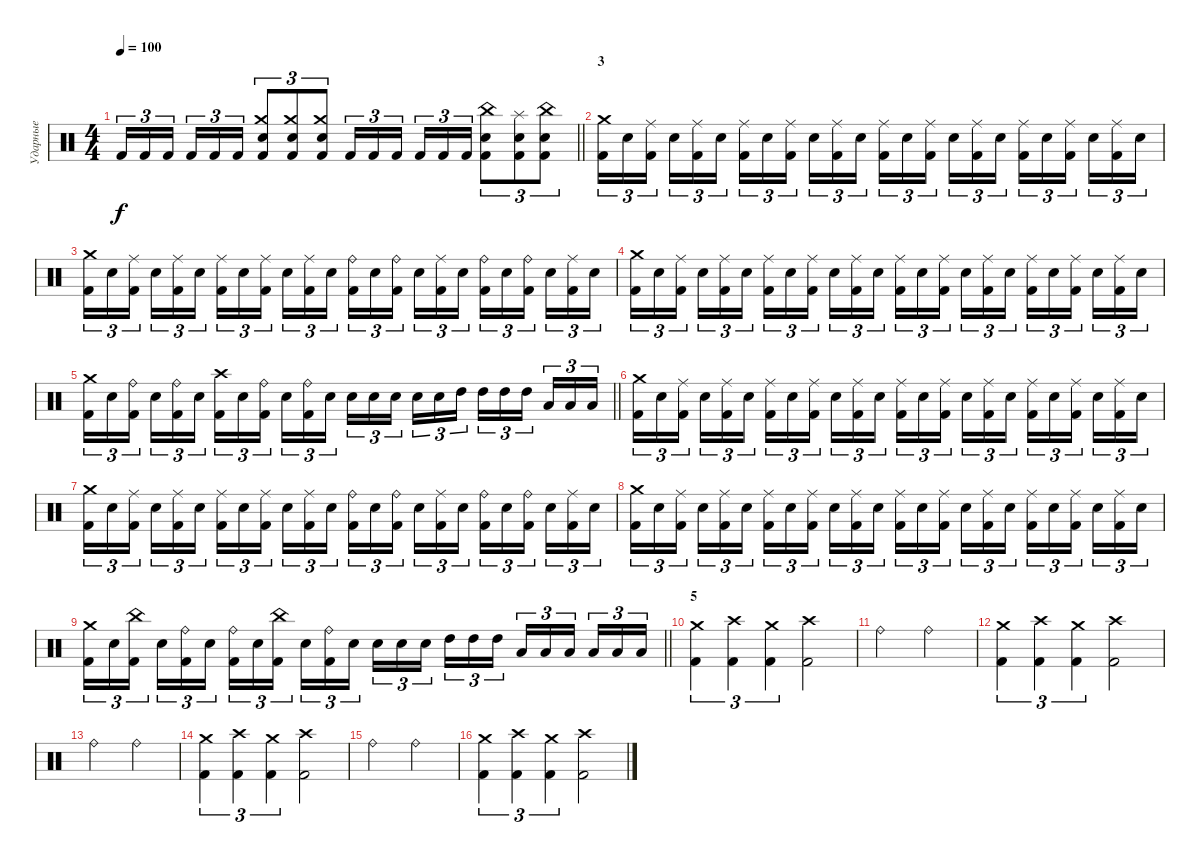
\track ("Ударные" "Ударные") {instrument percussion}
\staff {score}
\articulation defaults
\ts (4 4)
\tempo 100
\clef neutral
\barLineRight lightlight
\ks c "Kick (hit) 2".16{tu (3 2) dy f} "Kick (hit) 2".16{tu (3 2)} "Kick (hit) 2".16{tu (3 2) beam splitsecondary} "Kick (hit) 2".16{tu (3 2)} "Kick (hit) 2".16{tu (3 2)} "Kick (hit) 2".16{tu (3 2)}
("Crash medium (hit)" "Electric Snare (hit)" "Kick (hit) 2").8{tu (3 2)} ("Crash medium (hit)" "Electric Snare (hit)" "Kick (hit) 2").8{tu (3 2)} ("Crash medium (hit)" "Electric Snare (hit)" "Kick (hit) 2").8{tu (3 2)} "Kick (hit) 2".16{tu (3 2)} "Kick (hit) 2".16{tu (3 2)} "Kick (hit) 2".16{tu (3 2) beam splitsecondary} "Kick (hit) 2".16{tu (3 2)} "Kick (hit) 2".16{tu (3 2)} "Kick (hit) 2".16{tu (3 2)} ("China (hit)" "Electric Snare (hit)" "Kick (hit) 2").8{tu (3 2)} ("Splash (hit)" "Electric Snare (hit)" "Kick (hit) 2").8{tu (3 2)} ("China (hit)" "Electric Snare (hit)" "Kick (hit) 2").8{tu (3 2)} |
\section ("" "3")
("Crash medium (hit)" "Kick (hit) 2").16{tu (3 2)} "Electric Snare (hit)".16{tu (3 2)} ("Ride (middle)" "Kick (hit) 2").16{tu (3 2) beam splitsecondary} "Electric Snare (hit)".16{tu (3 2)} ("Ride (middle)" "Kick (hit) 2").16{tu (3 2)} "Electric Snare (hit)".16{tu (3 2)} ("Ride (middle)" "Kick (hit) 2").16{tu (3 2)} "Electric Snare (hit)".16{tu (3 2)} ("Ride (middle)" "Kick (hit) 2").16{tu (3 2) beam splitsecondary} "Electric Snare (hit)".16{tu (3 2)} ("Ride (middle)" "Kick (hit) 2").16{tu (3 2)} "Electric Snare (hit)".16{tu (3 2)} ("Ride (middle)" "Kick (hit) 2").16{tu (3 2)} "Electric Snare (hit)".16{tu (3 2)} ("Ride (middle)" "Kick (hit) 2").16{tu (3 2) beam splitsecondary} "Electric Snare (hit)".16{tu (3 2)} ("Ride (middle)" "Kick (hit) 2").16{tu (3 2)} "Electric Snare (hit)".16{tu (3 2)} ("Ride (middle)" "Kick (hit) 2").16{tu (3 2)} "Electric Snare (hit)".16{tu (3 2)} ("Ride (middle)" "Kick (hit) 2").16{tu (3 2) beam splitsecondary} "Electric Snare (hit)".16{tu (3 2)} ("Ride (middle)" "Kick (hit) 2").16{tu (3 2)} "Electric Snare (hit)".16{tu (3 2)} |
("Crash medium (hit)" "Kick (hit) 2").16{tu (3 2)} "Electric Snare (hit)".16{tu (3 2)} ("Ride (middle)" "Kick (hit) 2").16{tu (3 2) beam splitsecondary} "Electric Snare (hit)".16{tu (3 2)} ("Ride (middle)" "Kick (hit) 2").16{tu (3 2)} "Electric Snare (hit)".16{tu (3 2)} ("Ride (middle)" "Kick (hit) 2").16{tu (3 2)} "Electric Snare (hit)".16{tu (3 2)} ("Ride (middle)" "Kick (hit) 2").16{tu (3 2) beam splitsecondary} "Electric Snare (hit)".16{tu (3 2)} ("Ride (middle)" "Kick (hit) 2").16{tu (3 2)} "Electric Snare (hit)".16{tu (3 2)} ("Ride (bell)" "Kick (hit) 2").16{tu (3 2)} "Electric Snare (hit)".16{tu (3 2)} ("Ride (bell)" "Kick (hit) 2").16{tu (3 2) beam splitsecondary} "Electric Snare (hit)".16{tu (3 2)} ("Ride (middle)" "Kick (hit) 2").16{tu (3 2)} "Electric Snare (hit)".16{tu (3 2)} ("Ride (bell)" "Kick (hit) 2").16{tu (3 2)} "Electric Snare (hit)".16{tu (3 2)} ("Ride (bell)" "Kick (hit) 2").16{tu (3 2) beam splitsecondary} "Electric Snare (hit)".16{tu (3 2)} ("Ride (middle)" "Kick (hit) 2").16{tu (3 2)} "Electric Snare (hit)".16{tu (3 2)} |
("Crash medium (hit)" "Kick (hit) 2").16{tu (3 2)} "Electric Snare (hit)".16{tu (3 2)} ("Ride (middle)" "Kick (hit) 2").16{tu (3 2) beam splitsecondary} "Electric Snare (hit)".16{tu (3 2)} ("Ride (middle)" "Kick (hit) 2").16{tu (3 2)} "Electric Snare (hit)".16{tu (3 2)} ("Ride (middle)" "Kick (hit) 2").16{tu (3 2)} "Electric Snare (hit)".16{tu (3 2)} ("Ride (middle)" "Kick (hit) 2").16{tu (3 2) beam splitsecondary} "Electric Snare (hit)".16{tu (3 2)} ("Ride (middle)" "Kick (hit) 2").16{tu (3 2)} "Electric Snare (hit)".16{tu (3 2)} ("Ride (middle)" "Kick (hit) 2").16{tu (3 2)} "Electric Snare (hit)".16{tu (3 2)} ("Ride (middle)" "Kick (hit) 2").16{tu (3 2) beam splitsecondary} "Electric Snare (hit)".16{tu (3 2)} ("Ride (middle)" "Kick (hit) 2").16{tu (3 2)} "Electric Snare (hit)".16{tu (3 2)} ("Ride (middle)" "Kick (hit) 2").16{tu (3 2)} "Electric Snare (hit)".16{tu (3 2)} ("Ride (middle)" "Kick (hit) 2").16{tu (3 2) beam splitsecondary} "Electric Snare (hit)".16{tu (3 2)} ("Ride (middle)" "Kick (hit) 2").16{tu (3 2)} "Electric Snare (hit)".16{tu (3 2)} |
\barLineRight lightlight
("Crash medium (hit)" "Kick (hit) 2").16{tu (3 2)} "Electric Snare (hit)".16{tu (3 2)} ("Ride (bell)" "Kick (hit) 2").16{tu (3 2) beam splitsecondary} "Electric Snare (hit)".16{tu (3 2)} ("Ride (bell)" "Kick (hit) 2").16{tu (3 2)} "Electric Snare (hit)".16{tu (3 2)} ("Crash high (hit)" "Kick (hit) 2").16{tu (3 2)} "Electric Snare (hit)".16{tu (3 2)} ("Ride (bell)" "Kick (hit) 2").16{tu (3 2) beam splitsecondary} "Electric Snare (hit)".16{tu (3 2)} ("Ride (bell)" "Kick (hit) 2").16{tu (3 2)} "Electric Snare (hit)".16{tu (3 2)} "Electric Snare (hit)".16{tu (3 2)} "Electric Snare (hit)".16{tu (3 2)} "Electric Snare (hit)".16{tu (3 2) beam splitsecondary} "Electric Snare (hit)".16{tu (3 2)} "Electric Snare (hit)".16{tu (3 2)} "High Tom (hit)".16{tu (3 2)} "High Tom (hit)".16{tu (3 2)} "High Tom (hit)".16{tu (3 2)} "High Tom (hit)".16{tu (3 2) beam splitsecondary} "Low Tom (hit)".16{tu (3 2)} "Low Tom (hit)".16{tu (3 2)} "Low Tom (hit)".16{tu (3 2)} |
("Crash medium (hit)" "Kick (hit) 2").16{tu (3 2)} "Electric Snare (hit)".16{tu (3 2)} ("Ride (middle)" "Kick (hit) 2").16{tu (3 2) beam splitsecondary} "Electric Snare (hit)".16{tu (3 2)} ("Ride (middle)" "Kick (hit) 2").16{tu (3 2)} "Electric Snare (hit)".16{tu (3 2)} ("Ride (middle)" "Kick (hit) 2").16{tu (3 2)} "Electric Snare (hit)".16{tu (3 2)} ("Ride (middle)" "Kick (hit) 2").16{tu (3 2) beam splitsecondary} "Electric Snare (hit)".16{tu (3 2)} ("Ride (middle)" "Kick (hit) 2").16{tu (3 2)} "Electric Snare (hit)".16{tu (3 2)} ("Ride (middle)" "Kick (hit) 2").16{tu (3 2)} "Electric Snare (hit)".16{tu (3 2)} ("Ride (middle)" "Kick (hit) 2").16{tu (3 2) beam splitsecondary} "Electric Snare (hit)".16{tu (3 2)} ("Ride (middle)" "Kick (hit) 2").16{tu (3 2)} "Electric Snare (hit)".16{tu (3 2)} ("Ride (middle)" "Kick (hit) 2").16{tu (3 2)} "Electric Snare (hit)".16{tu (3 2)} ("Ride (middle)" "Kick (hit) 2").16{tu (3 2) beam splitsecondary} "Electric Snare (hit)".16{tu (3 2)} ("Ride (middle)" "Kick (hit) 2").16{tu (3 2)} "Electric Snare (hit)".16{tu (3 2)} |
("Crash medium (hit)" "Kick (hit) 2").16{tu (3 2)} "Electric Snare (hit)".16{tu (3 2)} ("Ride (middle)" "Kick (hit) 2").16{tu (3 2) beam splitsecondary} "Electric Snare (hit)".16{tu (3 2)} ("Ride (middle)" "Kick (hit) 2").16{tu (3 2)} "Electric Snare (hit)".16{tu (3 2)} ("Ride (middle)" "Kick (hit) 2").16{tu (3 2)} "Electric Snare (hit)".16{tu (3 2)} ("Ride (middle)" "Kick (hit) 2").16{tu (3 2) beam splitsecondary} "Electric Snare (hit)".16{tu (3 2)} ("Ride (middle)" "Kick (hit) 2").16{tu (3 2)} "Electric Snare (hit)".16{tu (3 2)} ("Ride (bell)" "Kick (hit) 2").16{tu (3 2)} "Electric Snare (hit)".16{tu (3 2)} ("Ride (bell)" "Kick (hit) 2").16{tu (3 2) beam splitsecondary} "Electric Snare (hit)".16{tu (3 2)} ("Ride (middle)" "Kick (hit) 2").16{tu (3 2)} "Electric Snare (hit)".16{tu (3 2)} ("Ride (bell)" "Kick (hit) 2").16{tu (3 2)} "Electric Snare (hit)".16{tu (3 2)} ("Ride (bell)" "Kick (hit) 2").16{tu (3 2) beam splitsecondary} "Electric Snare (hit)".16{tu (3 2)} ("Ride (middle)" "Kick (hit) 2").16{tu (3 2)} "Electric Snare (hit)".16{tu (3 2)} |
("Crash medium (hit)" "Kick (hit) 2").16{tu (3 2)} "Electric Snare (hit)".16{tu (3 2)} ("Ride (middle)" "Kick (hit) 2").16{tu (3 2) beam splitsecondary} "Electric Snare (hit)".16{tu (3 2)} ("Ride (middle)" "Kick (hit) 2").16{tu (3 2)} "Electric Snare (hit)".16{tu (3 2)} ("Ride (middle)" "Kick (hit) 2").16{tu (3 2)} "Electric Snare (hit)".16{tu (3 2)} ("Ride (middle)" "Kick (hit) 2").16{tu (3 2) beam splitsecondary} "Electric Snare (hit)".16{tu (3 2)} ("Ride (middle)" "Kick (hit) 2").16{tu (3 2)} "Electric Snare (hit)".16{tu (3 2)} ("Ride (middle)" "Kick (hit) 2").16{tu (3 2)} "Electric Snare (hit)".16{tu (3 2)} ("Ride (middle)" "Kick (hit) 2").16{tu (3 2) beam splitsecondary} "Electric Snare (hit)".16{tu (3 2)} ("Ride (middle)" "Kick (hit) 2").16{tu (3 2)} "Electric Snare (hit)".16{tu (3 2)} ("Ride (middle)" "Kick (hit) 2").16{tu (3 2)} "Electric Snare (hit)".16{tu (3 2)} ("Ride (middle)" "Kick (hit) 2").16{tu (3 2) beam splitsecondary} "Electric Snare (hit)".16{tu (3 2)} ("Ride (middle)" "Kick (hit) 2").16{tu (3 2)} "Electric Snare (hit)".16{tu (3 2)} |
\barLineRight lightlight
("Crash medium (hit)" "Kick (hit) 2").16{tu (3 2)} "Electric Snare (hit)".16{tu (3 2)} ("China (hit)" "Kick (hit) 2").16{tu (3 2) beam splitsecondary} "Electric Snare (hit)".16{tu (3 2)} ("Ride (bell)" "Kick (hit) 2").16{tu (3 2)} "Electric Snare (hit)".16{tu (3 2)} ("Ride (bell)" "Kick (hit) 2").16{tu (3 2)} "Electric Snare (hit)".16{tu (3 2)} ("China (hit)" "Kick (hit) 2").16{tu (3 2) beam splitsecondary} "Electric Snare (hit)".16{tu (3 2)} ("Ride (bell)" "Kick (hit) 2").16{tu (3 2)} "Electric Snare (hit)".16{tu (3 2)} "Electric Snare (hit)".16{tu (3 2)} "Electric Snare (hit)".16{tu (3 2)} "Electric Snare (hit)".16{tu (3 2) beam splitsecondary} "High Tom (hit)".16{tu (3 2)} "High Tom (hit)".16{tu (3 2)} "High Tom (hit)".16{tu (3 2)} "Low Tom (hit)".16{tu (3 2)} "Low Tom (hit)".16{tu (3 2)} "Low Tom (hit)".16{tu (3 2) beam splitsecondary} "Low Floor Tom (hit)".16{tu (3 2)} "Low Floor Tom (hit)".16{tu (3 2)} "Low Floor Tom (hit)".16{tu (3 2)} |
\section ("" "5")
("Crash medium (hit)" "Kick (hit) 2").4{tu (3 2)} ("Crash high (hit)" "Kick (hit) 2").4{tu (3 2)} ("Crash medium (hit)" "Kick (hit) 2").4{tu (3 2)} ("Crash high (hit)" "Kick (hit) 2").2 |
"Ride (bell)".2 "Ride (bell)".2 |
("Crash medium (hit)" "Kick (hit) 2").4{tu (3 2)} ("Crash high (hit)" "Kick (hit) 2").4{tu (3 2)} ("Crash medium (hit)" "Kick (hit) 2").4{tu (3 2)} ("Crash high (hit)" "Kick (hit) 2").2 |
"Ride (bell)".2 "Ride (bell)".2 |
("Crash medium (hit)" "Kick (hit) 2").4{tu (3 2)} ("Crash high (hit)" "Kick (hit) 2").4{tu (3 2)} ("Crash medium (hit)" "Kick (hit) 2").4{tu (3 2)} ("Crash high (hit)" "Kick (hit) 2").2 |
"Ride (bell)".2 "Ride (bell)".2 |
("Crash medium (hit)" "Kick (hit) 2").4{tu (3 2)} ("Crash high (hit)" "Kick (hit) 2").4{tu (3 2)} ("Crash medium (hit)" "Kick (hit) 2").4{tu (3 2)} ("Crash high (hit)" "Kick (hit) 2").2
